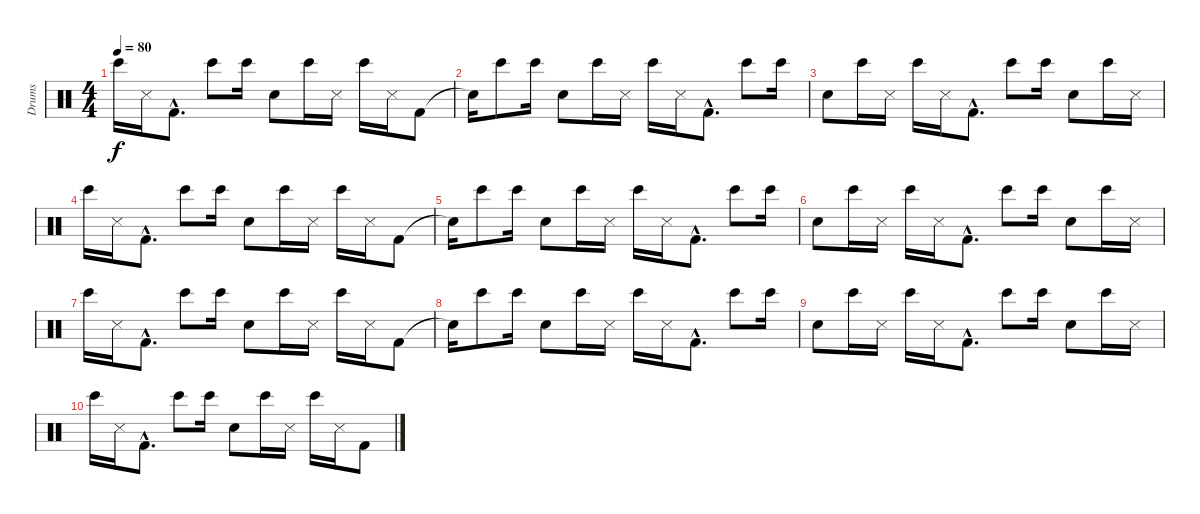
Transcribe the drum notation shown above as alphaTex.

\track ("Drums" "Drums") {instrument percussion}
\staff {score}
\articulation defaults
\ts (4 4)
\tempo 80
\clef neutral
\ks c "Bongo High (hit)".16{dy f} "Snare (side stick) 3".16 "Kick (hit) 2"{hac}.8{d} "Bongo High (hit)".8 "Bongo High (hit)".16 "Electric Snare (hit)".8 "Bongo High (hit)".16 "Snare (side stick) 3".16 "Bongo High (hit)".16 "Snare (side stick) 3".16 "Kick (hit) 2".8
|
"Snare (hit)"{t}.16 "Bongo High (hit)".8 "Bongo High (hit)".16 "Electric Snare (hit)".8 "Bongo High (hit)".16 "Snare (side stick) 3".16 "Bongo High (hit)".16 "Snare (side stick) 3".16 "Kick (hit) 2"{hac}.8{d} "Bongo High (hit)".8 "Bongo High (hit)".16 |
"Electric Snare (hit)".8 "Bongo High (hit)".16 "Snare (side stick) 3".16 "Bongo High (hit)".16 "Snare (side stick) 3".16 "Kick (hit) 2"{hac}.8{d} "Bongo High (hit)".8 "Bongo High (hit)".16 "Electric Snare (hit)".8 "Bongo High (hit)".16 "Snare (side stick) 3".16 |
"Bongo High (hit)".16 "Snare (side stick) 3".16 "Kick (hit) 2"{hac}.8{d} "Bongo High (hit)".8 "Bongo High (hit)".16 "Electric Snare (hit)".8 "Bongo High (hit)".16 "Snare (side stick) 3".16 "Bongo High (hit)".16 "Snare (side stick) 3".16 "Kick (hit) 2".8 |
"Snare (hit)"{t}.16 "Bongo High (hit)".8 "Bongo High (hit)".16 "Electric Snare (hit)".8 "Bongo High (hit)".16 "Snare (side stick) 3".16 "Bongo High (hit)".16 "Snare (side stick) 3".16 "Kick (hit) 2"{hac}.8{d} "Bongo High (hit)".8 "Bongo High (hit)".16 |
"Electric Snare (hit)".8 "Bongo High (hit)".16 "Snare (side stick) 3".16 "Bongo High (hit)".16 "Snare (side stick) 3".16 "Kick (hit) 2"{hac}.8{d} "Bongo High (hit)".8 "Bongo High (hit)".16 "Electric Snare (hit)".8 "Bongo High (hit)".16 "Snare (side stick) 3".16 |
"Bongo High (hit)".16 "Snare (side stick) 3".16 "Kick (hit) 2"{hac}.8{d} "Bongo High (hit)".8 "Bongo High (hit)".16 "Electric Snare (hit)".8 "Bongo High (hit)".16 "Snare (side stick) 3".16 "Bongo High (hit)".16 "Snare (side stick) 3".16 "Kick (hit) 2".8 |
"Snare (hit)"{t}.16 "Bongo High (hit)".8 "Bongo High (hit)".16 "Electric Snare (hit)".8 "Bongo High (hit)".16 "Snare (side stick) 3".16 "Bongo High (hit)".16 "Snare (side stick) 3".16 "Kick (hit) 2"{hac}.8{d} "Bongo High (hit)".8 "Bongo High (hit)".16 |
"Electric Snare (hit)".8 "Bongo High (hit)".16 "Snare (side stick) 3".16 "Bongo High (hit)".16 "Snare (side stick) 3".16 "Kick (hit) 2"{hac}.8{d} "Bongo High (hit)".8 "Bongo High (hit)".16 "Electric Snare (hit)".8 "Bongo High (hit)".16 "Snare (side stick) 3".16 |
"Bongo High (hit)".16 "Snare (side stick) 3".16 "Kick (hit) 2"{hac}.8{d} "Bongo High (hit)".8 "Bongo High (hit)".16 "Electric Snare (hit)".8 "Bongo High (hit)".16 "Snare (side stick) 3".16 "Bongo High (hit)".16 "Snare (side stick) 3".16 "Kick (hit) 2".8
